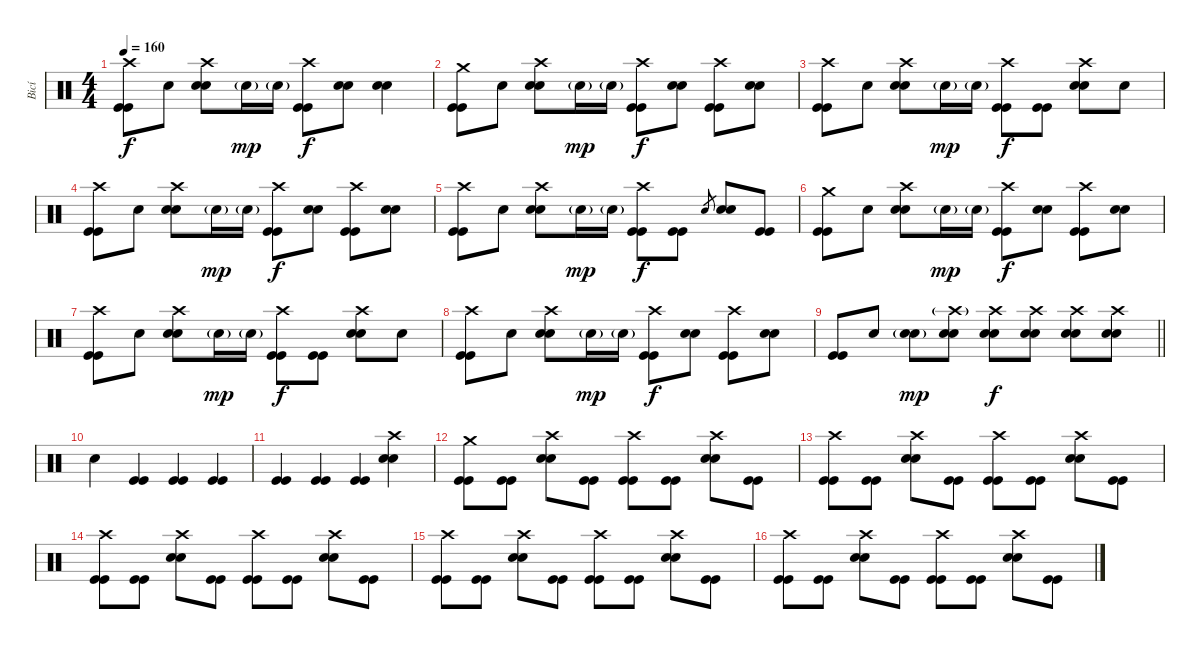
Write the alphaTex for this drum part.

\track ("Bicí" "Bicí") {instrument percussion}
\staff {score}
\articulation defaults
\ts (4 4)
\tempo 160
\clef neutral
\ks c
("Crash high (hit)" "Kick (hit)" "Kick (hit)").8{dy f} "Snare (hit)".8 ("Crash high (hit)" "Electric Snare (hit)" "Electric Snare (hit)").8 "Electric Snare (hit)"{g}.16{dy mp} "Electric Snare (hit)"{g}.16 ("Crash high (hit)" "Kick (hit)" "Kick (hit)").8{dy f} ("Electric Snare (hit)" "Electric Snare (hit)").8 ("Electric Snare (hit)" "Electric Snare (hit)").4 |
("Crash medium (hit)" "Kick (hit)" "Kick (hit)").8 "Snare (hit)".8 ("Crash high (hit)" "Electric Snare (hit)" "Electric Snare (hit)").8 "Electric Snare (hit)"{g}.16{dy mp} "Electric Snare (hit)"{g}.16 ("Crash high (hit)" "Kick (hit)" "Kick (hit)").8{dy f} ("Electric Snare (hit)" "Electric Snare (hit)").8 ("Crash high (hit)" "Kick (hit)" "Kick (hit)").8 ("Electric Snare (hit)" "Electric Snare (hit)").8 |
("Crash high (hit)" "Kick (hit)" "Kick (hit)").8 "Snare (hit)".8 ("Crash high (hit)" "Electric Snare (hit)" "Electric Snare (hit)").8 "Electric Snare (hit)"{g}.16{dy mp} "Electric Snare (hit)"{g}.16 ("Crash high (hit)" "Kick (hit)" "Kick (hit)").8{dy f} ("Kick (hit)" "Kick (hit)").8 ("Crash high (hit)" "Electric Snare (hit)" "Electric Snare (hit)").8 "Snare (hit)".8 |
("Crash high (hit)" "Kick (hit)" "Kick (hit)").8 "Snare (hit)".8 ("Crash high (hit)" "Electric Snare (hit)" "Electric Snare (hit)").8 "Electric Snare (hit)"{g}.16{dy mp} "Electric Snare (hit)"{g}.16 ("Crash high (hit)" "Kick (hit)" "Kick (hit)").8{dy f} ("Electric Snare (hit)" "Electric Snare (hit)").8 ("Crash high (hit)" "Kick (hit)" "Kick (hit)").8 ("Electric Snare (hit)" "Electric Snare (hit)").8 |
("Crash high (hit)" "Kick (hit)" "Kick (hit)").8 "Snare (hit)".8 ("Crash high (hit)" "Electric Snare (hit)" "Electric Snare (hit)").8 "Electric Snare (hit)"{g}.16{dy mp} "Electric Snare (hit)"{g}.16 ("Crash high (hit)" "Kick (hit)" "Kick (hit)").8{dy f} ("Kick (hit)" "Kick (hit)").8 "Electric Snare (hit)".8{gr} ("Electric Snare (hit)" "Electric Snare (hit)").8 ("Kick (hit)" "Kick (hit)").8 |
("Crash medium (hit)" "Kick (hit)" "Kick (hit)").8 "Snare (hit)".8 ("Crash high (hit)" "Electric Snare (hit)" "Electric Snare (hit)").8 "Electric Snare (hit)"{g}.16{dy mp} "Electric Snare (hit)"{g}.16 ("Crash high (hit)" "Kick (hit)" "Kick (hit)").8{dy f} ("Electric Snare (hit)" "Electric Snare (hit)").8 ("Crash high (hit)" "Kick (hit)" "Kick (hit)").8 ("Electric Snare (hit)" "Electric Snare (hit)").8 |
("Crash high (hit)" "Kick (hit)" "Kick (hit)").8 "Snare (hit)".8 ("Crash high (hit)" "Electric Snare (hit)" "Electric Snare (hit)").8 "Electric Snare (hit)"{g}.16{dy mp} "Electric Snare (hit)"{g}.16 ("Crash high (hit)" "Kick (hit)" "Kick (hit)").8{dy f} ("Kick (hit)" "Kick (hit)").8 ("Crash high (hit)" "Electric Snare (hit)" "Electric Snare (hit)").8 "Snare (hit)".8 |
("Crash high (hit)" "Kick (hit)" "Kick (hit)").8 "Snare (hit)".8 ("Crash high (hit)" "Electric Snare (hit)" "Electric Snare (hit)").8 "Electric Snare (hit)"{g}.16{dy mp} "Electric Snare (hit)"{g}.16 ("Crash high (hit)" "Kick (hit)" "Kick (hit)").8{dy f} ("Electric Snare (hit)" "Electric Snare (hit)").8 ("Crash high (hit)" "Kick (hit)" "Kick (hit)").8 ("Electric Snare (hit)" "Electric Snare (hit)").8 |
\barLineRight lightlight
("Kick (hit)" "Kick (hit)").8 "Electric Snare (hit)".8 ("Electric Snare (hit)"{g} "Electric Snare (hit)").8{dy mp} ("Crash high (hit)"{g} "Electric Snare (hit)" "Electric Snare (hit)").8 ("Crash high (hit)" "Electric Snare (hit)" "Electric Snare (hit)").8{dy f} ("Crash high (hit)" "Electric Snare (hit)" "Electric Snare (hit)").8 ("Crash high (hit)" "Electric Snare (hit)" "Electric Snare (hit)").8 ("Crash high (hit)" "Electric Snare (hit)" "Electric Snare (hit)").8 |
\section ("" "")
"Snare (hit)".4 ("Kick (hit)" "Kick (hit)").4 ("Kick (hit)" "Kick (hit)").4 ("Kick (hit)" "Kick (hit)").4 |
("Kick (hit)" "Kick (hit)").4 ("Kick (hit)" "Kick (hit)").4 ("Kick (hit)" "Kick (hit)").4 ("Crash high (hit)" "Electric Snare (hit)" "Electric Snare (hit)").4 |
("Crash medium (hit)" "Kick (hit)" "Kick (hit)").8 ("Kick (hit)" "Kick (hit)").8 ("Crash high (hit)" "Electric Snare (hit)" "Electric Snare (hit)").8 ("Kick (hit)" "Kick (hit)").8 ("Crash high (hit)" "Kick (hit)" "Kick (hit)").8 ("Kick (hit)" "Kick (hit)").8 ("Crash high (hit)" "Electric Snare (hit)" "Electric Snare (hit)").8 ("Kick (hit)" "Kick (hit)").8 |
("Crash high (hit)" "Kick (hit)" "Kick (hit)").8 ("Kick (hit)" "Kick (hit)").8 ("Crash high (hit)" "Electric Snare (hit)" "Electric Snare (hit)").8 ("Kick (hit)" "Kick (hit)").8 ("Crash high (hit)" "Kick (hit)" "Kick (hit)").8 ("Kick (hit)" "Kick (hit)").8 ("Crash high (hit)" "Electric Snare (hit)" "Electric Snare (hit)").8 ("Kick (hit)" "Kick (hit)").8 |
("Crash high (hit)" "Kick (hit)" "Kick (hit)").8 ("Kick (hit)" "Kick (hit)").8 ("Crash high (hit)" "Electric Snare (hit)" "Electric Snare (hit)").8 ("Kick (hit)" "Kick (hit)").8 ("Crash high (hit)" "Kick (hit)" "Kick (hit)").8 ("Kick (hit)" "Kick (hit)").8 ("Crash high (hit)" "Electric Snare (hit)" "Electric Snare (hit)").8 ("Kick (hit)" "Kick (hit)").8 |
("Crash high (hit)" "Kick (hit)" "Kick (hit)").8 ("Kick (hit)" "Kick (hit)").8 ("Crash high (hit)" "Electric Snare (hit)" "Electric Snare (hit)").8 ("Kick (hit)" "Kick (hit)").8 ("Crash high (hit)" "Kick (hit)" "Kick (hit)").8 ("Kick (hit)" "Kick (hit)").8 ("Crash high (hit)" "Electric Snare (hit)" "Electric Snare (hit)").8 ("Kick (hit)" "Kick (hit)").8 |
("Crash high (hit)" "Kick (hit)" "Kick (hit)").8 ("Kick (hit)" "Kick (hit)").8 ("Crash high (hit)" "Electric Snare (hit)" "Electric Snare (hit)").8 ("Kick (hit)" "Kick (hit)").8 ("Crash high (hit)" "Kick (hit)" "Kick (hit)").8 ("Kick (hit)" "Kick (hit)").8 ("Crash high (hit)" "Electric Snare (hit)" "Electric Snare (hit)").8 ("Kick (hit)" "Kick (hit)").8
